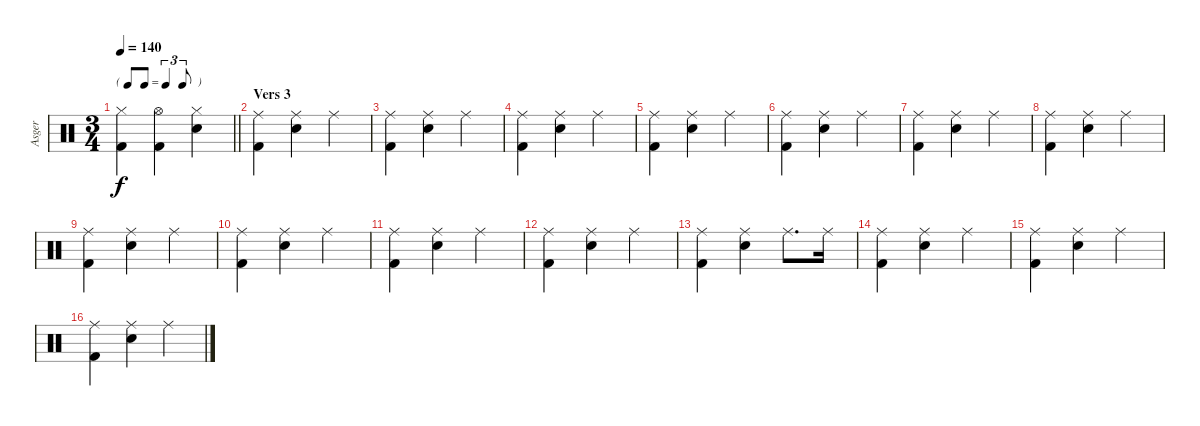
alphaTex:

\track ("Asger " "Asger ") {instrument percussion}
\staff {score}
\articulation defaults
\ts (3 4)
\tf triplet8th
\tempo 140
\clef neutral
\barLineRight lightlight
\ks c
("Hi-Hat (closed)" "Kick (hit) 2").4{dy f} ("Hi-Hat (open)" "Kick (hit) 2").4 ("Hi-Hat (closed)" "Snare (hit) 2").4 |
\section ("" "Vers 3")
("Ride (middle)" "Kick (hit) 2").4 ("Ride (middle)" "Snare (hit) 2").4 "Ride (middle)".4 |
("Ride (middle)" "Kick (hit) 2").4 ("Ride (middle)" "Snare (hit) 2").4 "Ride (middle)".4 |
("Ride (middle)" "Kick (hit) 2").4 ("Ride (middle)" "Snare (hit) 2").4 "Ride (middle)".4 |
("Ride (middle)" "Kick (hit) 2").4 ("Ride (middle)" "Snare (hit) 2").4 "Ride (middle)".4 |
("Ride (middle)" "Kick (hit) 2").4 ("Ride (middle)" "Snare (hit) 2").4 "Ride (middle)".4 |
("Ride (middle)" "Kick (hit) 2").4 ("Ride (middle)" "Snare (hit) 2").4 "Ride (middle)".4 |
("Ride (middle)" "Kick (hit) 2").4 ("Ride (middle)" "Snare (hit) 2").4 "Ride (middle)".4 |
("Ride (middle)" "Kick (hit) 2").4 ("Ride (middle)" "Snare (hit) 2").4 "Ride (middle)".4 |
("Ride (middle)" "Kick (hit) 2").4 ("Ride (middle)" "Snare (hit) 2").4 "Ride (middle)".4 |
("Ride (middle)" "Kick (hit) 2").4 ("Ride (middle)" "Snare (hit) 2").4 "Ride (middle)".4 |
("Ride (middle)" "Kick (hit) 2").4 ("Ride (middle)" "Snare (hit) 2").4 "Ride (middle)".4 |
("Ride (middle)" "Kick (hit) 2").4 ("Ride (middle)" "Snare (hit) 2").4 "Ride (middle)".8{d} "Ride (middle)".16 |
("Ride (middle)" "Kick (hit) 2").4 ("Ride (middle)" "Snare (hit) 2").4 "Ride (middle)".4 |
("Ride (middle)" "Kick (hit) 2").4 ("Ride (middle)" "Snare (hit) 2").4 "Ride (middle)".4 |
("Ride (middle)" "Kick (hit) 2").4 ("Ride (middle)" "Snare (hit) 2").4 "Ride (middle)".4
